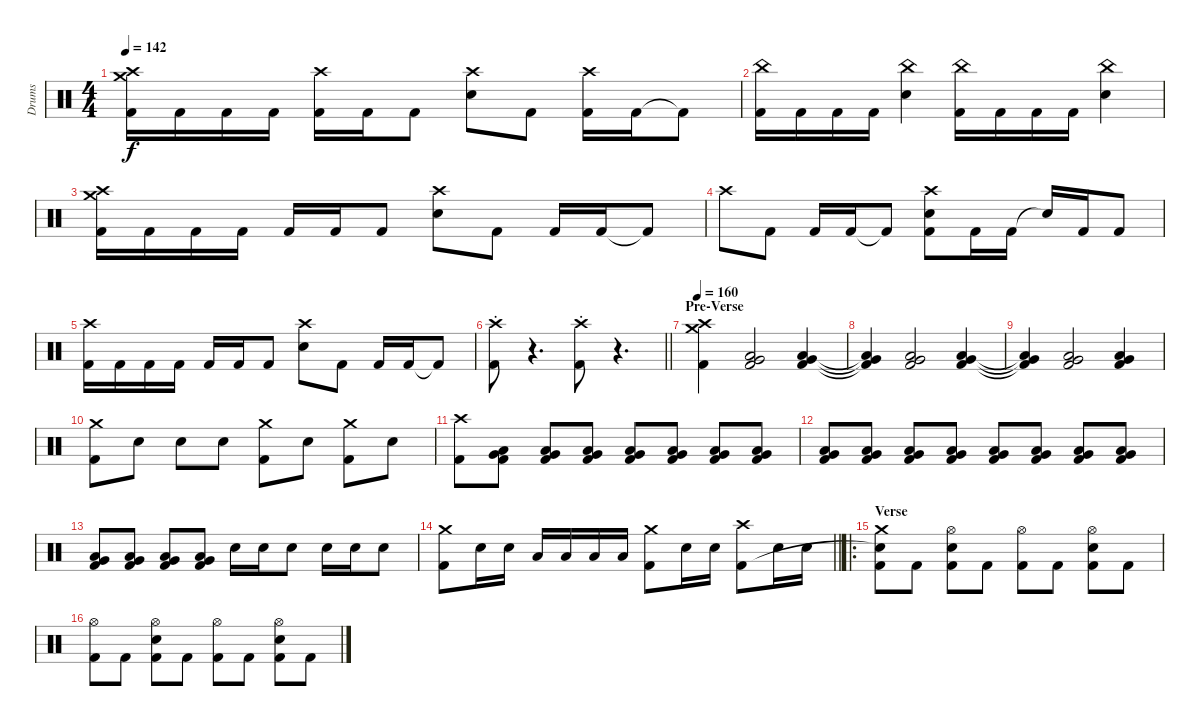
\track ("Drums" "Drums") {instrument percussion}
\staff {score}
\articulation defaults
\ts (4 4)
\tempo 142
\clef neutral
\ks c
("Crash medium (hit)" "Crash high (hit)" "Kick (hit) 2").16{dy f} "Kick (hit) 2".16 "Kick (hit) 2".16 "Kick (hit) 2".16 ("Crash high (hit)" "Kick (hit) 2").16 "Kick (hit) 2".16 "Kick (hit) 2".8 ("Crash high (hit)" "Electric Snare (hit)").8 "Kick (hit) 2".8 ("Crash high (hit)" "Kick (hit) 2").16 "Kick (hit) 2".16 "Kick (hit) 2"{t}.8 |
("China (hit)" "Kick (hit) 2").16 "Kick (hit) 2".16 "Kick (hit) 2".16 "Kick (hit) 2".16 ("China (hit)" "Electric Snare (hit)").4 ("China (hit)" "Kick (hit) 2").16 "Kick (hit) 2".16 "Kick (hit) 2".16 "Kick (hit) 2".16 ("China (hit)" "Electric Snare (hit)").4 |
("Crash medium (hit)" "Crash high (hit)" "Kick (hit) 2").16 "Kick (hit) 2".16 "Kick (hit) 2".16 "Kick (hit) 2".16 "Kick (hit) 2".16 "Kick (hit) 2".16 "Kick (hit) 2".8 ("Crash high (hit)" "Electric Snare (hit)").8 "Kick (hit) 2".8 "Kick (hit) 2".16 "Kick (hit) 2".16 "Kick (hit) 2"{t}.8 |
"Crash high (hit)".8 "Kick (hit) 2".8 "Kick (hit) 2".16 "Kick (hit) 2".16 "Kick (hit) 2"{t}.8 ("Crash high (hit)" "Electric Snare (hit)" "Kick (hit) 2").8 "Kick (hit) 2".16 "Kick (hit) 2".16 "Snare (hit)"{t}.16 "Kick (hit) 2".16 "Kick (hit) 2".8 |
("Crash high (hit)" "Kick (hit) 2").16 "Kick (hit) 2".16 "Kick (hit) 2".16 "Kick (hit) 2".16 "Kick (hit) 2".16 "Kick (hit) 2".16 "Kick (hit) 2".8 ("Crash high (hit)" "Electric Snare (hit)").8 "Kick (hit) 2".8 "Kick (hit) 2".16 "Kick (hit) 2".16 "Kick (hit) 2"{t}.8 |
\barLineRight lightlight
("Crash high (hit)"{st} "Kick (hit) 2").8 r.4{d volume 0} ("Crash high (hit)"{st} "Kick (hit) 2").8{volume 14} r.4{d volume 0} |
\section ("" "Pre-Verse")
\tempo 160
("Crash medium (hit)" "Crash high (hit)" "Kick (hit) 2").4{volume 14} ("Very Low Tom (hit)" "Low Floor Tom (hit)" "Kick (hit) 2").2 ("Very Low Tom (hit)" "Low Floor Tom (hit)" "Kick (hit) 2").4 |
("Very Low Tom (hit)"{t} "Low Floor Tom (hit)"{t} "Kick (hit) 2"{t}).4 ("Very Low Tom (hit)" "Low Floor Tom (hit)" "Kick (hit) 2").2 ("Very Low Tom (hit)" "Low Floor Tom (hit)" "Kick (hit) 2").4 |
("Very Low Tom (hit)"{t} "Low Floor Tom (hit)"{t} "Kick (hit) 2"{t}).4 ("Very Low Tom (hit)" "Low Floor Tom (hit)" "Kick (hit) 2").2 ("Very Low Tom (hit)" "Low Floor Tom (hit)" "Kick (hit) 2").4 |
("Crash medium (hit)" "Kick (hit) 2").8 "Electric Snare (hit)".8 "Electric Snare (hit)".8 "Electric Snare (hit)".8 ("Crash medium (hit)" "Kick (hit) 2").8 "Electric Snare (hit)".8 ("Crash medium (hit)" "Kick (hit) 2").8 "Electric Snare (hit)".8 |
("Crash high (hit)" "Kick (hit) 2").8 ("Very Low Tom (hit)" "Low Floor Tom (hit)" "Kick (hit) 2").8{volume 7} ("Very Low Tom (hit)" "Low Floor Tom (hit)" "Kick (hit) 2").8 ("Very Low Tom (hit)" "Low Floor Tom (hit)" "Kick (hit) 2").8{volume 14} ("Very Low Tom (hit)" "Low Floor Tom (hit)" "Kick (hit) 2").8 ("Very Low Tom (hit)" "Low Floor Tom (hit)" "Kick (hit) 2").8 ("Very Low Tom (hit)" "Low Floor Tom (hit)" "Kick (hit) 2").8 ("Very Low Tom (hit)" "Low Floor Tom (hit)" "Kick (hit) 2").8 |
("Very Low Tom (hit)" "Low Floor Tom (hit)" "Kick (hit) 2").8 ("Very Low Tom (hit)" "Low Floor Tom (hit)" "Kick (hit) 2").8 ("Very Low Tom (hit)" "Low Floor Tom (hit)" "Kick (hit) 2").8 ("Very Low Tom (hit)" "Low Floor Tom (hit)" "Kick (hit) 2").8 ("Very Low Tom (hit)" "Low Floor Tom (hit)" "Kick (hit) 2").8 ("Very Low Tom (hit)" "Low Floor Tom (hit)" "Kick (hit) 2").8 ("Very Low Tom (hit)" "Low Floor Tom (hit)" "Kick (hit) 2").8 ("Very Low Tom (hit)" "Low Floor Tom (hit)" "Kick (hit) 2").8 |
("Very Low Tom (hit)" "Low Floor Tom (hit)" "Kick (hit) 2").8 ("Very Low Tom (hit)" "Low Floor Tom (hit)" "Kick (hit) 2").8 ("Very Low Tom (hit)" "Low Floor Tom (hit)" "Kick (hit) 2").8 ("Very Low Tom (hit)" "Low Floor Tom (hit)" "Kick (hit) 2").8 "Electric Snare (hit)".16 "Electric Snare (hit)".16 "Electric Snare (hit)".8 "Electric Snare (hit)".16 "Electric Snare (hit)".16 "Electric Snare (hit)".8 |
\barLineRight lightlight
("Crash medium (hit)" "Kick (hit) 2").8 "Electric Snare (hit)".16 "Electric Snare (hit)".16 "Low Tom (hit)".16 "Low Tom (hit)".16 "Low Tom (hit)".16 "Low Tom (hit)".16 ("Crash medium (hit)" "Kick (hit) 2").8 "Electric Snare (hit)".16 "Electric Snare (hit)".16 ("Crash high (hit)" "Kick (hit) 2").8 "Electric Snare (hit)".16 "Electric Snare (hit)".16 |
\ro
\section ("" "Verse")
("Crash medium (hit)" "Snare (hit)"{t} "Kick (hit) 2").8 "Kick (hit) 2".8 ("Hi-Hat (open)" "Electric Snare (hit)" "Kick (hit) 2").8 "Kick (hit) 2".8 ("Hi-Hat (open)" "Kick (hit) 2").8 "Kick (hit) 2".8 ("Hi-Hat (open)" "Electric Snare (hit)" "Kick (hit) 2").8 "Kick (hit) 2".8 |
("Hi-Hat (open)" "Kick (hit) 2").8 "Kick (hit) 2".8 ("Hi-Hat (open)" "Electric Snare (hit)" "Kick (hit) 2").8 "Kick (hit) 2".8 ("Hi-Hat (open)" "Kick (hit) 2").8 "Kick (hit) 2".8 ("Hi-Hat (open)" "Electric Snare (hit)" "Kick (hit) 2").8 "Kick (hit) 2".8
